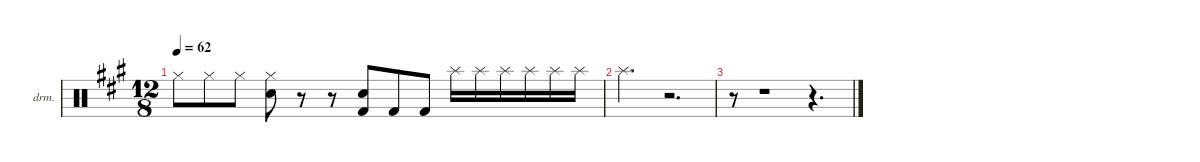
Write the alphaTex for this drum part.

\defaultSystemsLayout 4
\hideDynamics
\bracketExtendMode nobrackets
\firstSystemTrackNameOrientation horizontal
\otherSystemsTrackNameOrientation horizontal
\track ("Drums" "drm.") {instrument percussion}
\staff {score}
\articulation defaults
\ts (12 8)
\tempo 62
\clef neutral
\ks a "Hi-Hat (closed)"{acc forcenatural}.8{dy f} "Hi-Hat (closed)"{acc forcenatural}.8 "Hi-Hat (closed)"{acc forcenatural}.8
("Hi-Hat (closed)"{acc forcenatural} "Snare (hit) 2"{acc forcenatural}).8 r.8 r.8 ("Snare (hit) 2"{acc forcenatural} "Kick (hit) 2"{acc forcenatural}).8 "Kick (hit) 2"{acc forcenatural}.8 "Kick (hit) 2"{acc forcenatural}.8 "Splash (hit)"{acc forcenatural}.16 "Splash (hit)"{acc forcenatural}.16 "Splash (hit)"{acc forcenatural}.16 "Splash (hit)"{acc forcenatural}.16 "Splash (hit)"{acc forcenatural}.16 "Splash (hit)"{acc forcenatural}.16 |
"Splash (hit)"{acc forcenatural}.2{d} r.2{d} |
r.8 r.1 r.4{d}
